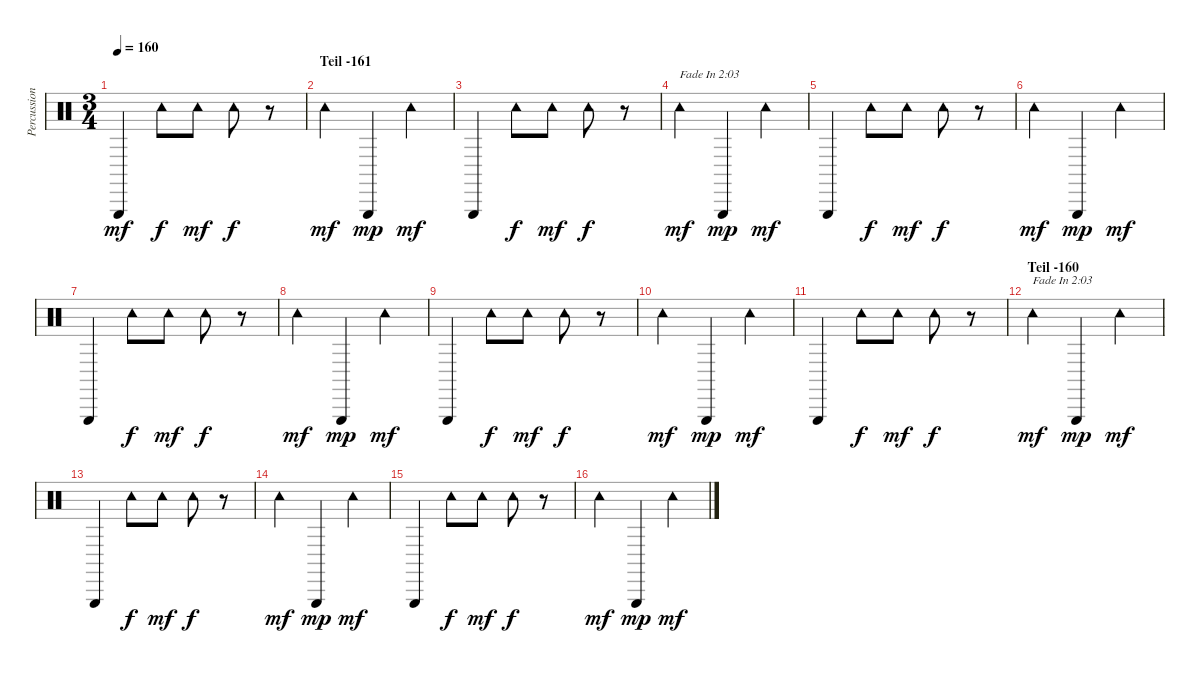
\track ("Percussion" "Percussion") {instrument percussion}
\staff {score}
\articulation defaults
\ts (3 4)
\tempo 160
\clef neutral
\ks c "Triangle (hit)".4{dy mf} "Tambourine (hit)".8{dy f} "Tambourine (hit)".8{dy mf} "Tambourine (hit)".8{dy f}
r.8 |
\section ("" "Teil -161")
"Tambourine (hit)".4{dy mf} "Triangle (hit)".4{dy mp} "Tambourine (hit)".4{dy mf} |
"Triangle (hit)".4 "Tambourine (hit)".8{dy f} "Tambourine (hit)".8{dy mf} "Tambourine (hit)".8{dy f} r.8 |
"Tambourine (hit)".4{txt "Fade In 2:03" dy mf} "Triangle (hit)".4{dy mp} "Tambourine (hit)".4{dy mf} |
"Triangle (hit)".4 "Tambourine (hit)".8{dy f} "Tambourine (hit)".8{dy mf} "Tambourine (hit)".8{dy f} r.8 |
"Tambourine (hit)".4{dy mf} "Triangle (hit)".4{dy mp} "Tambourine (hit)".4{dy mf} |
"Triangle (hit)".4 "Tambourine (hit)".8{dy f} "Tambourine (hit)".8{dy mf} "Tambourine (hit)".8{dy f} r.8 |
"Tambourine (hit)".4{dy mf} "Triangle (hit)".4{dy mp} "Tambourine (hit)".4{dy mf} |
"Triangle (hit)".4 "Tambourine (hit)".8{dy f} "Tambourine (hit)".8{dy mf} "Tambourine (hit)".8{dy f} r.8 |
"Tambourine (hit)".4{dy mf} "Triangle (hit)".4{dy mp} "Tambourine (hit)".4{dy mf} |
"Triangle (hit)".4 "Tambourine (hit)".8{dy f} "Tambourine (hit)".8{dy mf} "Tambourine (hit)".8{dy f} r.8 |
\section ("" "Teil -160")
"Tambourine (hit)".4{txt "Fade In 2:03" dy mf} "Triangle (hit)".4{dy mp} "Tambourine (hit)".4{dy mf} |
"Triangle (hit)".4 "Tambourine (hit)".8{dy f} "Tambourine (hit)".8{dy mf} "Tambourine (hit)".8{dy f} r.8 |
"Tambourine (hit)".4{dy mf} "Triangle (hit)".4{dy mp} "Tambourine (hit)".4{dy mf} |
"Triangle (hit)".4 "Tambourine (hit)".8{dy f} "Tambourine (hit)".8{dy mf} "Tambourine (hit)".8{dy f} r.8 |
"Tambourine (hit)".4{dy mf} "Triangle (hit)".4{dy mp} "Tambourine (hit)".4{dy mf}
